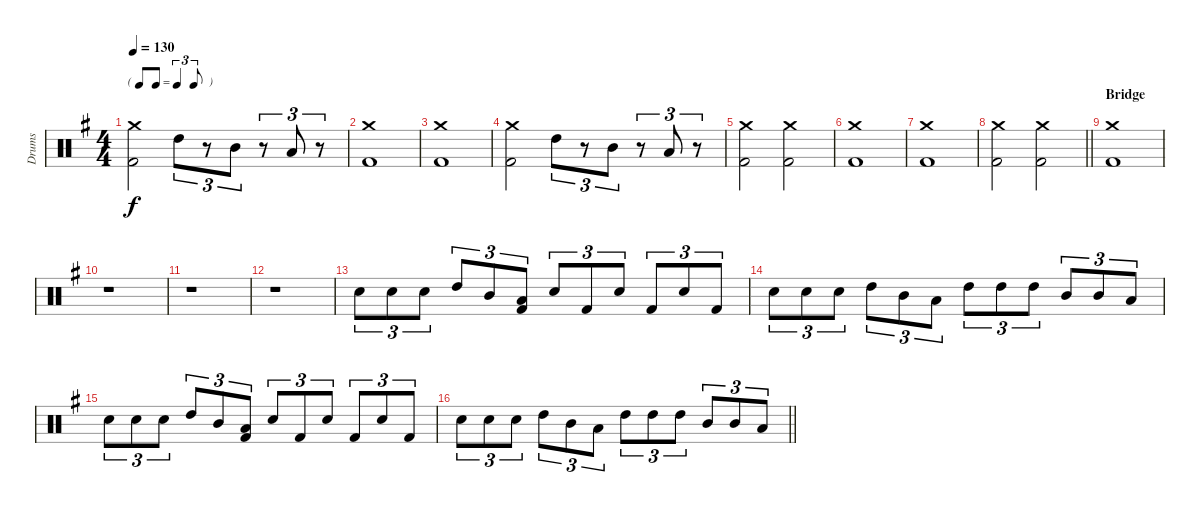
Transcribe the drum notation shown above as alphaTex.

\track ("Drums" "Drums") {instrument percussion}
\staff {score}
\articulation defaults
\ts (4 4)
\tf triplet8th
\tempo 130
\clef neutral
\ks eminor
("Kick (hit) 2" "Crash medium (hit)").2{dy f} "High Tom (hit)".8{tu (3 2)} r.8{tu (3 2)} "Mid Tom (hit)".8{tu (3 2)} r.8{tu (3 2)} "Low Tom (hit)".8{tu (3 2)} r.8{tu (3 2)} |
("Kick (hit) 2" "Crash medium (hit)").1 |
("Kick (hit) 2" "Crash medium (hit)").1 |
("Kick (hit) 2" "Crash medium (hit)").2 "High Tom (hit)".8{tu (3 2)} r.8{tu (3 2)} "Mid Tom (hit)".8{tu (3 2)} r.8{tu (3 2)} "Low Tom (hit)".8{tu (3 2)} r.8{tu (3 2)} |
("Kick (hit) 2" "Crash medium (hit)").2 ("Kick (hit) 2" "Crash medium (hit)").2 |
("Kick (hit) 2" "Crash medium (hit)").1 |
("Kick (hit) 2" "Crash medium (hit)").1 |
\barLineRight lightlight
("Kick (hit) 2" "Crash medium (hit)").2 ("Kick (hit) 2" "Crash medium (hit)").2 |
\section ("" "Bridge")
("Kick (hit) 2" "Crash medium (hit)").1 |
r.1 |
r.1 |
r.1 |
"Snare (hit) 2".8{tu (3 2)} "Snare (hit) 2".8{tu (3 2)} "Snare (hit) 2".8{tu (3 2)} "High Tom (hit)".8{tu (3 2)} "Mid Tom (hit)".8{tu (3 2)} ("Kick (hit) 2" "Low Tom (hit)").8{tu (3 2)} "Snare (hit) 2".8{tu (3 2)} "Kick (hit) 2".8{tu (3 2)} "Snare (hit) 2".8{tu (3 2)} "Kick (hit) 2".8{tu (3 2)} "Snare (hit) 2".8{tu (3 2)} "Kick (hit) 2".8{tu (3 2)} |
"Snare (hit) 2".8{tu (3 2)} "Snare (hit) 2".8{tu (3 2)} "Snare (hit) 2".8{tu (3 2)} "High Tom (hit)".8{tu (3 2)} "Mid Tom (hit)".8{tu (3 2)} "Low Tom (hit)".8{tu (3 2)} "High Tom (hit)".8{tu (3 2)} "High Tom (hit)".8{tu (3 2)} "High Tom (hit)".8{tu (3 2)} "Mid Tom (hit)".8{tu (3 2)} "Mid Tom (hit)".8{tu (3 2)} "Low Tom (hit)".8{tu (3 2)} |
"Snare (hit) 2".8{tu (3 2)} "Snare (hit) 2".8{tu (3 2)} "Snare (hit) 2".8{tu (3 2)} "High Tom (hit)".8{tu (3 2)} "Mid Tom (hit)".8{tu (3 2)} ("Kick (hit) 2" "Low Tom (hit)").8{tu (3 2)} "Snare (hit) 2".8{tu (3 2)} "Kick (hit) 2".8{tu (3 2)} "Snare (hit) 2".8{tu (3 2)} "Kick (hit) 2".8{tu (3 2)} "Snare (hit) 2".8{tu (3 2)} "Kick (hit) 2".8{tu (3 2)} |
\barLineRight lightlight "Snare (hit) 2".8{tu (3 2)} "Snare (hit) 2".8{tu (3 2)} "Snare (hit) 2".8{tu (3 2)} "High Tom (hit)".8{tu (3 2)} "Mid Tom (hit)".8{tu (3 2)} "Low Tom (hit)".8{tu (3 2)} "High Tom (hit)".8{tu (3 2)} "High Tom (hit)".8{tu (3 2)} "High Tom (hit)".8{tu (3 2)} "Mid Tom (hit)".8{tu (3 2)} "Mid Tom (hit)".8{tu (3 2)} "Low Tom (hit)".8{tu (3 2)}
